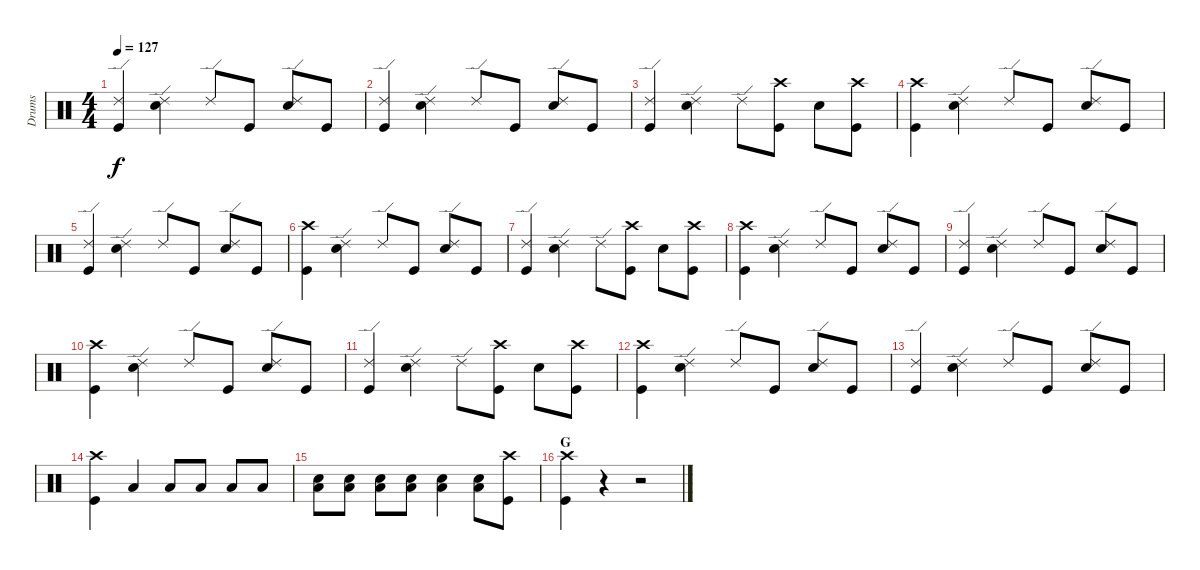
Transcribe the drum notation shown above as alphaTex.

\track ("Drums" "Drums") {instrument percussion}
\staff {score}
\articulation defaults
\ts (4 4)
\tempo 127
\clef neutral
\ks c
("Ride (edge) 2" "Kick (hit)").4{dy f} ("Ride (edge) 2" "Snare (hit) 2").4 "Ride (edge) 2".8 "Kick (hit)".8 ("Ride (edge) 2" "Snare (hit) 2").8 "Kick (hit)".8 |
("Ride (edge) 2" "Kick (hit)").4 ("Ride (edge) 2" "Snare (hit) 2").4 "Ride (edge) 2".8 "Kick (hit)".8 ("Ride (edge) 2" "Snare (hit) 2").8 "Kick (hit)".8 |
("Ride (edge) 2" "Kick (hit)").4 ("Ride (edge) 2" "Snare (hit) 2").4 "Ride (edge) 2".8 ("Crash high (hit)" "Kick (hit)").8 "Snare (hit) 2".8 ("Crash high (hit)" "Kick (hit)").8 |
("Crash high (hit)" "Kick (hit)").4 ("Ride (edge) 2" "Snare (hit) 2").4 "Ride (edge) 2".8 "Kick (hit)".8 ("Ride (edge) 2" "Snare (hit) 2").8 "Kick (hit)".8 |
("Ride (edge) 2" "Kick (hit)").4 ("Ride (edge) 2" "Snare (hit) 2").4 "Ride (edge) 2".8 "Kick (hit)".8 ("Ride (edge) 2" "Snare (hit) 2").8 "Kick (hit)".8 |
("Crash high (hit)" "Kick (hit)").4 ("Ride (edge) 2" "Snare (hit) 2").4 "Ride (edge) 2".8 "Kick (hit)".8 ("Ride (edge) 2" "Snare (hit) 2").8 "Kick (hit)".8 |
("Ride (edge) 2" "Kick (hit)").4 ("Ride (edge) 2" "Snare (hit) 2").4 "Ride (edge) 2".8 ("Crash high (hit)" "Kick (hit)").8 "Snare (hit) 2".8 ("Crash high (hit)" "Kick (hit)").8 |
("Crash high (hit)" "Kick (hit)").4 ("Ride (edge) 2" "Snare (hit) 2").4 "Ride (edge) 2".8 "Kick (hit)".8 ("Ride (edge) 2" "Snare (hit) 2").8 "Kick (hit)".8 |
("Ride (edge) 2" "Kick (hit)").4 ("Ride (edge) 2" "Snare (hit) 2").4 "Ride (edge) 2".8 "Kick (hit)".8 ("Ride (edge) 2" "Snare (hit) 2").8 "Kick (hit)".8 |
("Crash high (hit)" "Kick (hit)").4 ("Ride (edge) 2" "Snare (hit) 2").4 "Ride (edge) 2".8 "Kick (hit)".8 ("Ride (edge) 2" "Snare (hit) 2").8 "Kick (hit)".8 |
("Ride (edge) 2" "Kick (hit)").4 ("Ride (edge) 2" "Snare (hit) 2").4 "Ride (edge) 2".8 ("Crash high (hit)" "Kick (hit)").8 "Snare (hit) 2".8 ("Crash high (hit)" "Kick (hit)").8 |
("Crash high (hit)" "Kick (hit)").4 ("Ride (edge) 2" "Snare (hit) 2").4 "Ride (edge) 2".8 "Kick (hit)".8 ("Ride (edge) 2" "Snare (hit) 2").8 "Kick (hit)".8 |
("Ride (edge) 2" "Kick (hit)").4 ("Ride (edge) 2" "Snare (hit) 2").4 "Ride (edge) 2".8 "Kick (hit)".8 ("Ride (edge) 2" "Snare (hit) 2").8 "Kick (hit)".8 |
("Crash high (hit)" "Kick (hit)").4 "Low Tom (hit)".4 "Low Tom (hit)".8 "Low Tom (hit)".8 "Low Tom (hit)".8 "Low Tom (hit)".8 |
("Low Tom (hit)" "Snare (hit) 2").8 ("Low Tom (hit)" "Snare (hit) 2").8 ("Low Tom (hit)" "Snare (hit) 2").8 ("Low Tom (hit)" "Snare (hit) 2").8 ("Low Tom (hit)" "Snare (hit) 2").4 ("Low Tom (hit)" "Snare (hit) 2").8 ("Crash high (hit)" "Kick (hit)").8 |
\section ("" "G")
("Crash high (hit)" "Kick (hit)").4 r.4 r.2
